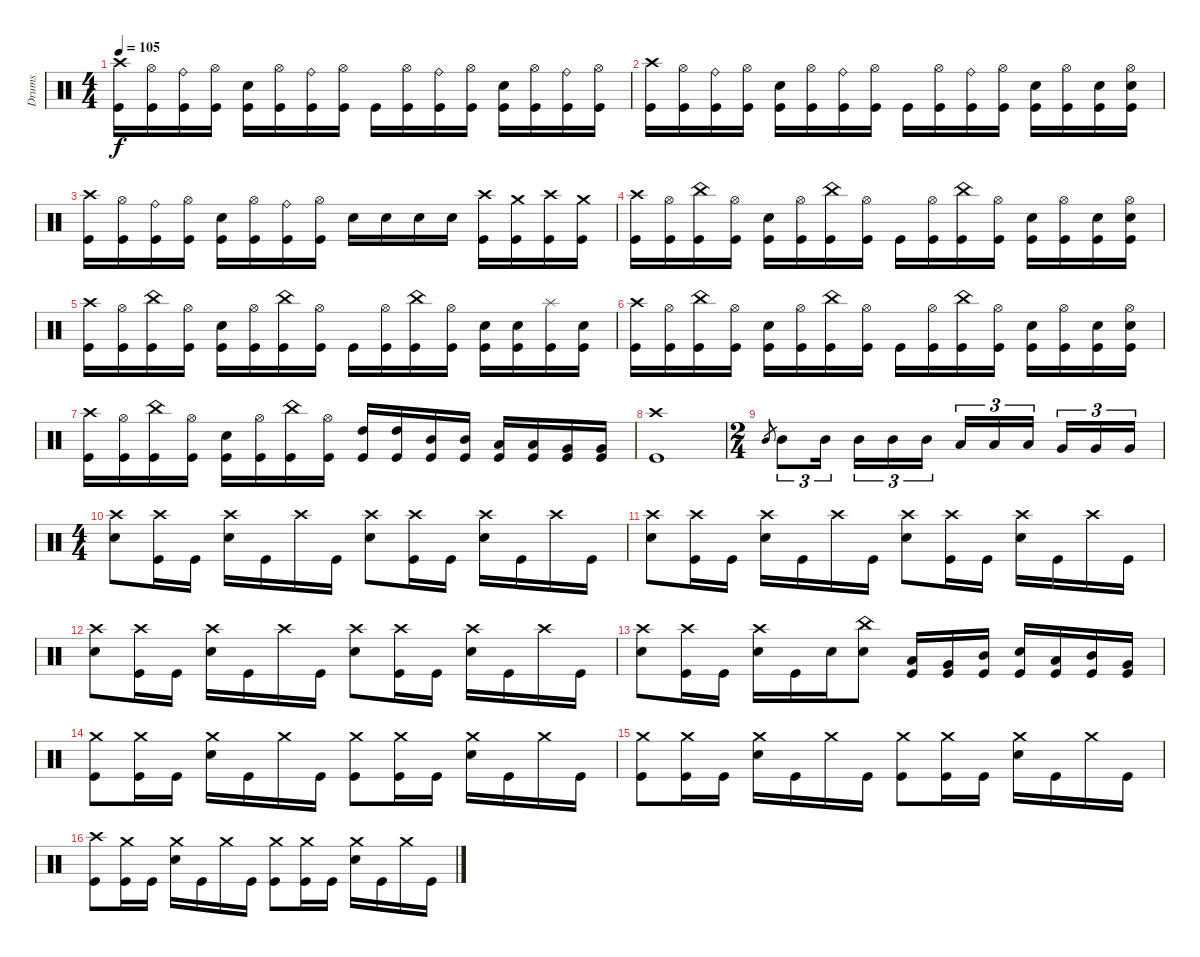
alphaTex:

\track ("Drums" "Drums") {instrument percussion}
\staff {score}
\articulation defaults
\ts (4 4)
\tempo 105
\clef neutral
\ks c
("Crash high (hit)" "Kick (hit)").16{dy f} ("Hi-Hat (open)" "Kick (hit)").16 ("Ride (bell)" "Kick (hit)").16 ("Hi-Hat (open)" "Kick (hit)").16 ("Electric Snare (hit)" "Kick (hit)").16 ("Hi-Hat (open)" "Kick (hit)").16 ("Ride (bell)" "Kick (hit)").16 ("Hi-Hat (open)" "Kick (hit)").16 "Kick (hit)".16 ("Hi-Hat (open)" "Kick (hit)").16 ("Ride (bell)" "Kick (hit)").16 ("Hi-Hat (open)" "Kick (hit)").16 ("Electric Snare (hit)" "Kick (hit)").16 ("Hi-Hat (open)" "Kick (hit)").16 ("Ride (bell)" "Kick (hit)").16 ("Hi-Hat (open)" "Kick (hit)").16 |
("Crash high (hit)" "Kick (hit)").16 ("Hi-Hat (open)" "Kick (hit)").16 ("Ride (bell)" "Kick (hit)").16 ("Hi-Hat (open)" "Kick (hit)").16 ("Electric Snare (hit)" "Kick (hit)").16 ("Hi-Hat (open)" "Kick (hit)").16 ("Ride (bell)" "Kick (hit)").16 ("Hi-Hat (open)" "Kick (hit)").16 "Kick (hit)".16 ("Hi-Hat (open)" "Kick (hit)").16 ("Ride (bell)" "Kick (hit)").16 ("Hi-Hat (open)" "Kick (hit)").16 ("Electric Snare (hit)" "Kick (hit)").16 ("Hi-Hat (open)" "Kick (hit)").16 ("Electric Snare (hit)" "Kick (hit)").16 ("Hi-Hat (open)" "Electric Snare (hit)" "Kick (hit)").16 |
("Crash high (hit)" "Kick (hit)").16 ("Hi-Hat (open)" "Kick (hit)").16 ("Ride (bell)" "Kick (hit)").16 ("Hi-Hat (open)" "Kick (hit)").16 ("Electric Snare (hit)" "Kick (hit)").16 ("Hi-Hat (open)" "Kick (hit)").16 ("Ride (bell)" "Kick (hit)").16 ("Hi-Hat (open)" "Kick (hit)").16 "Electric Snare (hit)".16 "Electric Snare (hit)".16 "Electric Snare (hit)".16 "Electric Snare (hit)".16 ("Crash high (hit)" "Kick (hit)").16 ("Crash medium (hit)" "Kick (hit)").16 ("Crash high (hit)" "Kick (hit)").16 ("Crash medium (hit)" "Kick (hit)").16 |
("Crash high (hit)" "Kick (hit)").16 ("Hi-Hat (open)" "Kick (hit)").16 ("China (hit)" "Kick (hit)").16 ("Hi-Hat (open)" "Kick (hit)").16 ("Electric Snare (hit)" "Kick (hit)").16 ("Hi-Hat (open)" "Kick (hit)").16 ("China (hit)" "Kick (hit)").16 ("Hi-Hat (open)" "Kick (hit)").16 "Kick (hit)".16 ("Hi-Hat (open)" "Kick (hit)").16 ("China (hit)" "Kick (hit)").16 ("Hi-Hat (open)" "Kick (hit)").16 ("Electric Snare (hit)" "Kick (hit)").16 ("Hi-Hat (open)" "Kick (hit)").16 ("Electric Snare (hit)" "Kick (hit)").16 ("Hi-Hat (open)" "Electric Snare (hit)" "Kick (hit)").16 |
("Crash high (hit)" "Kick (hit)").16 ("Hi-Hat (open)" "Kick (hit)").16 ("China (hit)" "Kick (hit)").16 ("Hi-Hat (open)" "Kick (hit)").16 ("Electric Snare (hit)" "Kick (hit)").16 ("Hi-Hat (open)" "Kick (hit)").16 ("China (hit)" "Kick (hit)").16 ("Hi-Hat (open)" "Kick (hit)").16 "Kick (hit)".16 ("Hi-Hat (open)" "Kick (hit)").16 ("China (hit)" "Kick (hit)").16 ("Hi-Hat (open)" "Kick (hit)").16 ("Electric Snare (hit)" "Kick (hit)").16 ("Electric Snare (hit)" "Kick (hit)").16 ("Splash (hit)" "Kick (hit)").16 ("Electric Snare (hit)" "Kick (hit)").16 |
("Crash high (hit)" "Kick (hit)").16 ("Hi-Hat (open)" "Kick (hit)").16 ("China (hit)" "Kick (hit)").16 ("Hi-Hat (open)" "Kick (hit)").16 ("Electric Snare (hit)" "Kick (hit)").16 ("Hi-Hat (open)" "Kick (hit)").16 ("China (hit)" "Kick (hit)").16 ("Hi-Hat (open)" "Kick (hit)").16 "Kick (hit)".16 ("Hi-Hat (open)" "Kick (hit)").16 ("China (hit)" "Kick (hit)").16 ("Hi-Hat (open)" "Kick (hit)").16 ("Electric Snare (hit)" "Kick (hit)").16 ("Hi-Hat (open)" "Kick (hit)").16 ("Electric Snare (hit)" "Kick (hit)").16 ("Hi-Hat (open)" "Electric Snare (hit)" "Kick (hit)").16 |
("Crash high (hit)" "Kick (hit)").16 ("Hi-Hat (open)" "Kick (hit)").16 ("China (hit)" "Kick (hit)").16 ("Hi-Hat (open)" "Kick (hit)").16 ("Electric Snare (hit)" "Kick (hit)").16 ("Hi-Hat (open)" "Kick (hit)").16 ("China (hit)" "Kick (hit)").16 ("Hi-Hat (open)" "Kick (hit)").16 ("High Tom (hit)" "Kick (hit)").16 ("High Tom (hit)" "Kick (hit)").16 ("Mid Tom (hit)" "Kick (hit)").16 ("Mid Tom (hit)" "Kick (hit)").16 ("Low Tom (hit)" "Kick (hit)").16 ("Low Tom (hit)" "Kick (hit)").16 ("Very Low Tom (hit)" "Kick (hit)").16 ("Very Low Tom (hit)" "Kick (hit)").16 |
("Crash high (hit)" "Kick (hit)").1 |
\ts (2 4)
"Mid Tom (hit)".8{gr} "Mid Tom (hit)".8{tu (3 2)} "Mid Tom (hit)".16{tu (3 2)} "Mid Tom (hit)".16{tu (3 2)} "Mid Tom (hit)".16{tu (3 2)} "Mid Tom (hit)".16{tu (3 2)} "Low Tom (hit)".16{tu (3 2)} "Low Tom (hit)".16{tu (3 2)} "Low Tom (hit)".16{tu (3 2)} "Very Low Tom (hit)".16{tu (3 2)} "Very Low Tom (hit)".16{tu (3 2)} "Very Low Tom (hit)".16{tu (3 2)} |
\ts (4 4)
("Crash high (hit)" "Electric Snare (hit)").8 ("Crash high (hit)" "Kick (hit)").16 "Kick (hit)".16 ("Crash high (hit)" "Electric Snare (hit)").16 "Kick (hit)".16 "Crash high (hit)".16 "Kick (hit)".16 ("Crash high (hit)" "Electric Snare (hit)").8 ("Crash high (hit)" "Kick (hit)").16 "Kick (hit)".16 ("Crash high (hit)" "Electric Snare (hit)").16 "Kick (hit)".16 "Crash high (hit)".16 "Kick (hit)".16 |
("Crash high (hit)" "Electric Snare (hit)").8 ("Crash high (hit)" "Kick (hit)").16 "Kick (hit)".16 ("Crash high (hit)" "Electric Snare (hit)").16 "Kick (hit)".16 "Crash high (hit)".16 "Kick (hit)".16 ("Crash high (hit)" "Electric Snare (hit)").8 ("Crash high (hit)" "Kick (hit)").16 "Kick (hit)".16 ("Crash high (hit)" "Electric Snare (hit)").16 "Kick (hit)".16 "Crash high (hit)".16 "Kick (hit)".16 |
("Crash high (hit)" "Electric Snare (hit)").8 ("Crash high (hit)" "Kick (hit)").16 "Kick (hit)".16 ("Crash high (hit)" "Electric Snare (hit)").16 "Kick (hit)".16 "Crash high (hit)".16 "Kick (hit)".16 ("Crash high (hit)" "Electric Snare (hit)").8 ("Crash high (hit)" "Kick (hit)").16 "Kick (hit)".16 ("Crash high (hit)" "Electric Snare (hit)").16 "Kick (hit)".16 "Crash high (hit)".16 "Kick (hit)".16 |
("Crash high (hit)" "Electric Snare (hit)").8 ("Crash high (hit)" "Kick (hit)").16 "Kick (hit)".16 ("Crash high (hit)" "Electric Snare (hit)").16 "Kick (hit)".16 "Electric Snare (hit)".16 ("China (hit)" "Electric Snare (hit)").8 ("Low Tom (hit)" "Kick (hit)").16 ("Very Low Tom (hit)" "Kick (hit)").16 ("Mid Tom (hit)" "Kick (hit)").16 ("Electric Snare (hit)" "Kick (hit)").16 ("Low Tom (hit)" "Kick (hit)").16 ("Mid Tom (hit)" "Kick (hit)").16 ("Very Low Tom (hit)" "Kick (hit)").16 |
("Crash medium (hit)" "Kick (hit)").8 ("Crash medium (hit)" "Kick (hit)").16 "Kick (hit)".16 ("Crash medium (hit)" "Electric Snare (hit)").16 "Kick (hit)".16 "Crash medium (hit)".16 "Kick (hit)".16 ("Crash medium (hit)" "Kick (hit)").8 ("Crash medium (hit)" "Kick (hit)").16 "Kick (hit)".16 ("Crash medium (hit)" "Electric Snare (hit)").16 "Kick (hit)".16 "Crash medium (hit)".16 "Kick (hit)".16 |
("Crash medium (hit)" "Kick (hit)").8 ("Crash medium (hit)" "Kick (hit)").16 "Kick (hit)".16 ("Crash medium (hit)" "Electric Snare (hit)").16 "Kick (hit)".16 "Crash medium (hit)".16 "Kick (hit)".16 ("Crash medium (hit)" "Kick (hit)").8 ("Crash medium (hit)" "Kick (hit)").16 "Kick (hit)".16 ("Crash medium (hit)" "Electric Snare (hit)").16 "Kick (hit)".16 "Crash medium (hit)".16 "Kick (hit)".16 |
("Crash high (hit)" "Kick (hit)").8 ("Crash medium (hit)" "Kick (hit)").16 "Kick (hit)".16 ("Crash medium (hit)" "Electric Snare (hit)").16 "Kick (hit)".16 "Crash medium (hit)".16 "Kick (hit)".16 ("Crash medium (hit)" "Kick (hit)").8 ("Crash medium (hit)" "Kick (hit)").16 "Kick (hit)".16 ("Crash medium (hit)" "Electric Snare (hit)").16 "Kick (hit)".16 "Crash medium (hit)".16 "Kick (hit)".16
